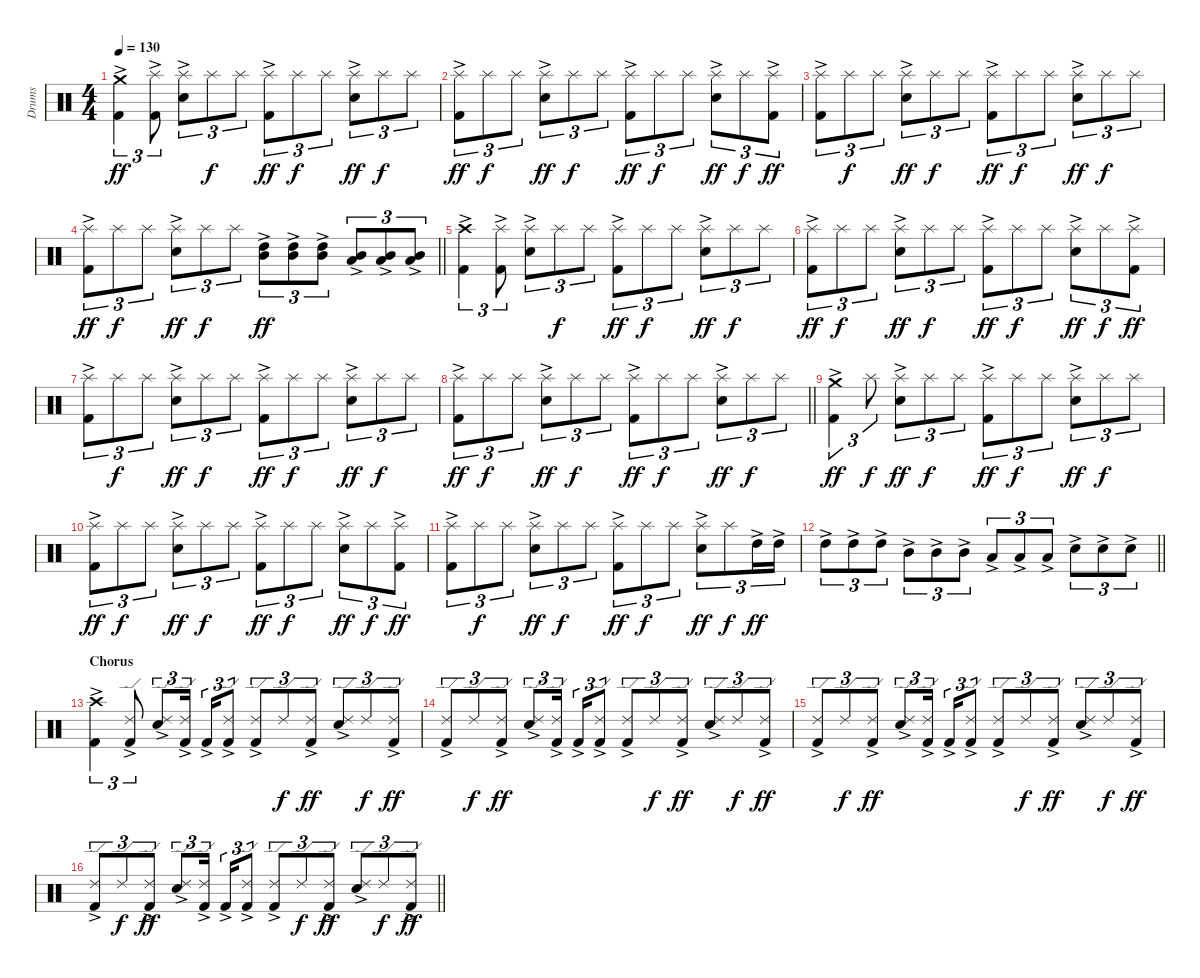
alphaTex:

\track ("Drums" "Drums") {instrument percussion}
\staff {score}
\articulation defaults
\ts (4 4)
\section ("" "")
\tempo 130
\clef neutral
\ks c
("Kick (hit) 2"{ac} "Crash medium (hit)").4{tu (3 2) dy ff} ("Kick (hit) 2"{ac} "Splash (hit)").8{tu (3 2)} ("Snare (hit) 2"{ac} "Splash (hit)").8{tu (3 2)} "Splash (hit)".8{tu (3 2) dy f} "Splash (hit)".8{tu (3 2)} ("Kick (hit) 2"{ac} "Splash (hit)").8{tu (3 2) dy ff} "Splash (hit)".8{tu (3 2) dy f} "Splash (hit)".8{tu (3 2)} ("Snare (hit) 2"{ac} "Splash (hit)").8{tu (3 2) dy ff} "Splash (hit)".8{tu (3 2) dy f} "Splash (hit)".8{tu (3 2)} |
("Kick (hit) 2"{ac} "Splash (hit)").8{tu (3 2) dy ff} "Splash (hit)".8{tu (3 2) dy f} "Splash (hit)".8{tu (3 2)} ("Snare (hit) 2"{ac} "Splash (hit)").8{tu (3 2) dy ff} "Splash (hit)".8{tu (3 2) dy f} "Splash (hit)".8{tu (3 2)} ("Kick (hit) 2"{ac} "Splash (hit)").8{tu (3 2) dy ff} "Splash (hit)".8{tu (3 2) dy f} "Splash (hit)".8{tu (3 2)} ("Snare (hit) 2"{ac} "Splash (hit)").8{tu (3 2) dy ff} "Splash (hit)".8{tu (3 2) dy f} ("Kick (hit) 2"{ac} "Splash (hit)").8{tu (3 2) dy ff} |
("Kick (hit) 2"{ac} "Splash (hit)").8{tu (3 2)} "Splash (hit)".8{tu (3 2) dy f} "Splash (hit)".8{tu (3 2)} ("Snare (hit) 2"{ac} "Splash (hit)").8{tu (3 2) dy ff} "Splash (hit)".8{tu (3 2) dy f} "Splash (hit)".8{tu (3 2)} ("Kick (hit) 2"{ac} "Splash (hit)").8{tu (3 2) dy ff} "Splash (hit)".8{tu (3 2) dy f} "Splash (hit)".8{tu (3 2)} ("Snare (hit) 2"{ac} "Splash (hit)").8{tu (3 2) dy ff} "Splash (hit)".8{tu (3 2) dy f} "Splash (hit)".8{tu (3 2)} |
\barLineRight lightlight
("Kick (hit) 2"{ac} "Splash (hit)").8{tu (3 2) dy ff} "Splash (hit)".8{tu (3 2) dy f} "Splash (hit)".8{tu (3 2)} ("Snare (hit) 2"{ac} "Splash (hit)").8{tu (3 2) dy ff} "Splash (hit)".8{tu (3 2) dy f} "Splash (hit)".8{tu (3 2)} ("High Tom (hit)" "Mid Tom (hit)"{ac}).8{tu (3 2) dy ff} ("High Tom (hit)" "Mid Tom (hit)"{ac}).8{tu (3 2)} ("High Tom (hit)" "Mid Tom (hit)"{ac}).8{tu (3 2)} ("Mid Tom (hit)" "Low Tom (hit)"{ac}).8{tu (3 2)} ("Mid Tom (hit)" "Low Tom (hit)"{ac}).8{tu (3 2)} ("Mid Tom (hit)" "Low Tom (hit)"{ac}).8{tu (3 2)} |
\section ("" "")
("Kick (hit) 2"{ac} "Crash high (hit)").4{tu (3 2)} ("Kick (hit) 2"{ac} "Splash (hit)").8{tu (3 2)} ("Snare (hit) 2"{ac} "Splash (hit)").8{tu (3 2)} "Splash (hit)".8{tu (3 2) dy f} "Splash (hit)".8{tu (3 2)} ("Kick (hit) 2"{ac} "Splash (hit)").8{tu (3 2) dy ff} "Splash (hit)".8{tu (3 2) dy f} "Splash (hit)".8{tu (3 2)} ("Snare (hit) 2"{ac} "Splash (hit)").8{tu (3 2) dy ff} "Splash (hit)".8{tu (3 2) dy f} "Splash (hit)".8{tu (3 2)} |
("Kick (hit) 2"{ac} "Splash (hit)").8{tu (3 2) dy ff} "Splash (hit)".8{tu (3 2) dy f} "Splash (hit)".8{tu (3 2)} ("Snare (hit) 2"{ac} "Splash (hit)").8{tu (3 2) dy ff} "Splash (hit)".8{tu (3 2) dy f} "Splash (hit)".8{tu (3 2)} ("Kick (hit) 2"{ac} "Splash (hit)").8{tu (3 2) dy ff} "Splash (hit)".8{tu (3 2) dy f} "Splash (hit)".8{tu (3 2)} ("Snare (hit) 2"{ac} "Splash (hit)").8{tu (3 2) dy ff} "Splash (hit)".8{tu (3 2) dy f} ("Kick (hit) 2"{ac} "Splash (hit)").8{tu (3 2) dy ff} |
("Kick (hit) 2"{ac} "Splash (hit)").8{tu (3 2)} "Splash (hit)".8{tu (3 2) dy f} "Splash (hit)".8{tu (3 2)} ("Snare (hit) 2"{ac} "Splash (hit)").8{tu (3 2) dy ff} "Splash (hit)".8{tu (3 2) dy f} "Splash (hit)".8{tu (3 2)} ("Kick (hit) 2"{ac} "Splash (hit)").8{tu (3 2) dy ff} "Splash (hit)".8{tu (3 2) dy f} "Splash (hit)".8{tu (3 2)} ("Snare (hit) 2"{ac} "Splash (hit)").8{tu (3 2) dy ff} "Splash (hit)".8{tu (3 2) dy f} "Splash (hit)".8{tu (3 2)} |
\barLineRight lightlight
("Kick (hit) 2"{ac} "Splash (hit)").8{tu (3 2) dy ff} "Splash (hit)".8{tu (3 2) dy f} "Splash (hit)".8{tu (3 2)} ("Snare (hit) 2"{ac} "Splash (hit)").8{tu (3 2) dy ff} "Splash (hit)".8{tu (3 2) dy f} "Splash (hit)".8{tu (3 2)} ("Kick (hit) 2"{ac} "Splash (hit)").8{tu (3 2) dy ff} "Splash (hit)".8{tu (3 2) dy f} "Splash (hit)".8{tu (3 2)} ("Snare (hit) 2"{ac} "Splash (hit)").8{tu (3 2) dy ff} "Splash (hit)".8{tu (3 2) dy f} "Splash (hit)".8{tu (3 2)} |
\section ("" "")
("Kick (hit) 2"{ac} "Crash medium (hit)").4{tu (3 2) dy ff} "Splash (hit)".8{tu (3 2) dy f} ("Snare (hit) 2"{ac} "Splash (hit)").8{tu (3 2) dy ff} "Splash (hit)".8{tu (3 2) dy f} "Splash (hit)".8{tu (3 2)} ("Kick (hit) 2"{ac} "Splash (hit)").8{tu (3 2) dy ff} "Splash (hit)".8{tu (3 2) dy f} "Splash (hit)".8{tu (3 2)} ("Snare (hit) 2"{ac} "Splash (hit)").8{tu (3 2) dy ff} "Splash (hit)".8{tu (3 2) dy f} "Splash (hit)".8{tu (3 2)} |
("Kick (hit) 2"{ac} "Splash (hit)").8{tu (3 2) dy ff} "Splash (hit)".8{tu (3 2) dy f} "Splash (hit)".8{tu (3 2)} ("Snare (hit) 2"{ac} "Splash (hit)").8{tu (3 2) dy ff} "Splash (hit)".8{tu (3 2) dy f} "Splash (hit)".8{tu (3 2)} ("Kick (hit) 2"{ac} "Splash (hit)").8{tu (3 2) dy ff} "Splash (hit)".8{tu (3 2) dy f} "Splash (hit)".8{tu (3 2)} ("Snare (hit) 2"{ac} "Splash (hit)").8{tu (3 2) dy ff} "Splash (hit)".8{tu (3 2) dy f} ("Kick (hit) 2"{ac} "Splash (hit)").8{tu (3 2) dy ff} |
("Kick (hit) 2"{ac} "Splash (hit)").8{tu (3 2)} "Splash (hit)".8{tu (3 2) dy f} "Splash (hit)".8{tu (3 2)} ("Snare (hit) 2"{ac} "Splash (hit)").8{tu (3 2) dy ff} "Splash (hit)".8{tu (3 2) dy f} "Splash (hit)".8{tu (3 2)} ("Kick (hit) 2"{ac} "Splash (hit)").8{tu (3 2) dy ff} "Splash (hit)".8{tu (3 2) dy f} "Splash (hit)".8{tu (3 2)} ("Snare (hit) 2"{ac} "Splash (hit)").8{tu (3 2) dy ff} "Splash (hit)".8{tu (3 2) dy f} "High Tom (hit)"{ac}.16{tu (3 2) dy ff} "High Tom (hit)"{ac}.16{tu (3 2)} |
\barLineRight lightlight "High Tom (hit)"{ac}.8{tu (3 2)} "High Tom (hit)"{ac}.8{tu (3 2)} "High Tom (hit)"{ac}.8{tu (3 2)} "Mid Tom (hit)"{ac}.8{tu (3 2)} "Mid Tom (hit)"{ac}.8{tu (3 2)} "Mid Tom (hit)"{ac}.8{tu (3 2)} "Low Tom (hit)"{ac}.8{tu (3 2)} "Low Tom (hit)"{ac}.8{tu (3 2)} "Low Tom (hit)"{ac}.8{tu (3 2)} "Snare (hit) 2"{ac}.8{tu (3 2)} "Snare (hit) 2"{ac}.8{tu (3 2)} "Snare (hit) 2"{ac}.8{tu (3 2)}
|
\section ("" "Chorus")
("Kick (hit) 2"{ac} "Crash high (hit)").4{tu (3 2)} ("Kick (hit) 2"{ac} "Ride (edge) 2").8{tu (3 2)} ("Snare (hit) 2"{ac} "Ride (edge) 2").8{tu (3 2)} ("Kick (hit) 2"{ac} "Ride (edge) 2").16{tu (3 2) beam splitsecondary} "Kick (hit) 2"{ac}.16{tu (3 2)} ("Kick (hit) 2"{ac} "Ride (edge) 2").8{tu (3 2)} ("Kick (hit) 2"{ac} "Ride (edge) 2").8{tu (3 2)} "Ride (edge) 2".8{tu (3 2) dy f} ("Kick (hit) 2"{ac} "Ride (edge) 2").8{tu (3 2) dy ff} ("Snare (hit) 2"{ac} "Ride (edge) 2").8{tu (3 2)} "Ride (edge) 2".8{tu (3 2) dy f} ("Kick (hit) 2"{ac} "Ride (edge) 2").8{tu (3 2) dy ff} |
("Kick (hit) 2"{ac} "Ride (edge) 2").8{tu (3 2)} "Ride (edge) 2".8{tu (3 2) dy f} ("Kick (hit) 2"{ac} "Ride (edge) 2").8{tu (3 2) dy ff} ("Snare (hit) 2"{ac} "Ride (edge) 2").8{tu (3 2)} ("Kick (hit) 2"{ac} "Ride (edge) 2").16{tu (3 2) beam splitsecondary} "Kick (hit) 2"{ac}.16{tu (3 2)} ("Kick (hit) 2"{ac} "Ride (edge) 2").8{tu (3 2)} ("Kick (hit) 2"{ac} "Ride (edge) 2").8{tu (3 2)} "Ride (edge) 2".8{tu (3 2) dy f} ("Kick (hit) 2"{ac} "Ride (edge) 2").8{tu (3 2) dy ff} ("Snare (hit) 2"{ac} "Ride (edge) 2").8{tu (3 2)} "Ride (edge) 2".8{tu (3 2) dy f} ("Kick (hit) 2"{ac} "Ride (edge) 2").8{tu (3 2) dy ff} |
("Kick (hit) 2"{ac} "Ride (edge) 2").8{tu (3 2)} "Ride (edge) 2".8{tu (3 2) dy f} ("Kick (hit) 2"{ac} "Ride (edge) 2").8{tu (3 2) dy ff} ("Snare (hit) 2"{ac} "Ride (edge) 2").8{tu (3 2)} ("Kick (hit) 2"{ac} "Ride (edge) 2").16{tu (3 2) beam splitsecondary} "Kick (hit) 2"{ac}.16{tu (3 2)} ("Kick (hit) 2"{ac} "Ride (edge) 2").8{tu (3 2)} ("Kick (hit) 2"{ac} "Ride (edge) 2").8{tu (3 2)} "Ride (edge) 2".8{tu (3 2) dy f} ("Kick (hit) 2"{ac} "Ride (edge) 2").8{tu (3 2) dy ff} ("Snare (hit) 2"{ac} "Ride (edge) 2").8{tu (3 2)} "Ride (edge) 2".8{tu (3 2) dy f} ("Kick (hit) 2"{ac} "Ride (edge) 2").8{tu (3 2) dy ff} |
\barLineRight lightlight
("Kick (hit) 2"{ac} "Ride (edge) 2").8{tu (3 2)} "Ride (edge) 2".8{tu (3 2) dy f} ("Kick (hit) 2"{ac} "Ride (edge) 2").8{tu (3 2) dy ff} ("Snare (hit) 2"{ac} "Ride (edge) 2").8{tu (3 2)} ("Kick (hit) 2"{ac} "Ride (edge) 2").16{tu (3 2) beam splitsecondary} "Kick (hit) 2"{ac}.16{tu (3 2)} ("Kick (hit) 2"{ac} "Ride (edge) 2").8{tu (3 2)} ("Kick (hit) 2"{ac} "Ride (edge) 2").8{tu (3 2)} "Ride (edge) 2".8{tu (3 2) dy f} ("Kick (hit) 2"{ac} "Ride (edge) 2").8{tu (3 2) dy ff} ("Snare (hit) 2"{ac} "Ride (edge) 2").8{tu (3 2)} "Ride (edge) 2".8{tu (3 2) dy f} ("Kick (hit) 2"{ac} "Ride (edge) 2").8{tu (3 2) dy ff}
